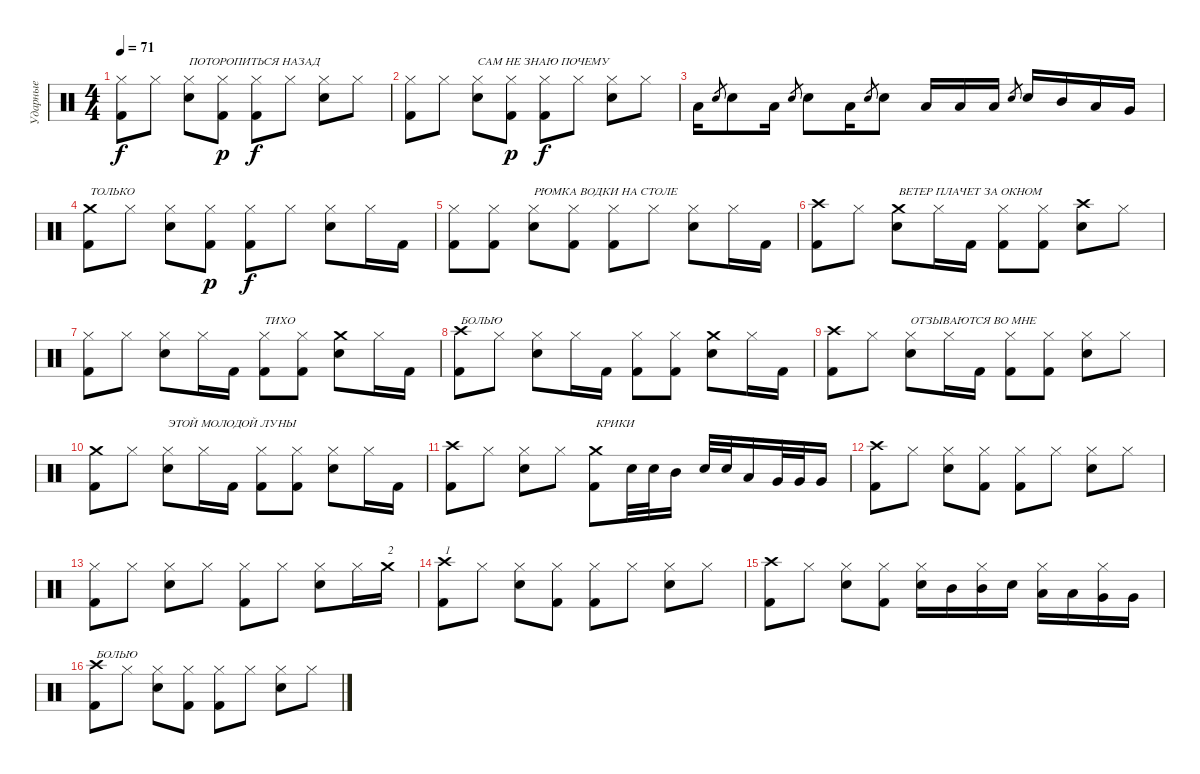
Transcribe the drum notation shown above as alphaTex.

\track ("Ударные" "Ударные") {instrument percussion}
\staff {score}
\articulation defaults
\ts (4 4)
\tempo 71
\clef neutral
\ks c
("Hi-Hat (closed)" "Kick (hit) 2").8{dy f} "Hi-Hat (closed)".8 ("Hi-Hat (closed)" "Snare (hit) 2").8{txt "ПОТОРОПИТЬСЯ НАЗАД"} ("Hi-Hat (closed)" "Kick (hit) 2").8{dy p} ("Hi-Hat (closed)" "Kick (hit) 2").8{dy f} "Hi-Hat (closed)".8 ("Hi-Hat (closed)" "Snare (hit) 2").8 "Hi-Hat (closed)".8 |
("Hi-Hat (closed)" "Kick (hit) 2").8 "Hi-Hat (closed)".8 ("Hi-Hat (closed)" "Snare (hit) 2").8{txt "САМ НЕ ЗНАЮ ПОЧЕМУ"} ("Hi-Hat (closed)" "Kick (hit) 2").8{dy p} ("Hi-Hat (closed)" "Kick (hit) 2").8{dy f} "Hi-Hat (closed)".8 ("Hi-Hat (closed)" "Snare (hit) 2").8 "Hi-Hat (closed)".8 |
"Low Tom (hit)".16 "Snare (hit) 2".8{gr} "Snare (hit) 2".8 "Low Tom (hit)".16 "Snare (hit) 2".8{gr} "Snare (hit) 2".8 "Low Tom (hit)".16 "Snare (hit) 2".8{gr} "Snare (hit) 2".8 "Low Tom (hit)".16 "Low Tom (hit)".16 "Low Tom (hit)".16 "Snare (hit) 2".8{gr} "Snare (hit) 2".16 "Mid Tom (hit)".16 "Low Tom (hit)".16 "Very Low Tom (hit)".16 |
("Crash medium (hit)" "Kick (hit) 2").8{txt "ТОЛЬКО"} "Hi-Hat (closed)".8 ("Hi-Hat (closed)" "Snare (hit) 2").8 ("Hi-Hat (closed)" "Kick (hit) 2").8{dy p} ("Hi-Hat (closed)" "Kick (hit) 2").8{dy f} "Hi-Hat (closed)".8 ("Hi-Hat (closed)" "Snare (hit) 2").8 "Hi-Hat (closed)".16 "Kick (hit) 2".16 |
("Hi-Hat (closed)" "Kick (hit) 2").8 ("Hi-Hat (closed)" "Kick (hit) 2").8 ("Hi-Hat (closed)" "Snare (hit) 2").8{txt "РЮМКА ВОДКИ НА СТОЛЕ"} ("Hi-Hat (closed)" "Kick (hit) 2").8 ("Hi-Hat (closed)" "Kick (hit) 2").8 "Hi-Hat (closed)".8 ("Hi-Hat (closed)" "Snare (hit) 2").8 "Hi-Hat (closed)".16 "Kick (hit) 2".16 |
("Crash high (hit)" "Kick (hit) 2").8 "Hi-Hat (closed)".8 ("Crash medium (hit)" "Snare (hit) 2").8{txt "ВЕТЕР ПЛАЧЕТ ЗА ОКНОМ"} "Hi-Hat (closed)".16 "Kick (hit) 2".16 ("Hi-Hat (closed)" "Kick (hit) 2").8 ("Hi-Hat (closed)" "Kick (hit) 2").8 ("Crash high (hit)" "Snare (hit) 2").8 "Hi-Hat (closed)".8 |
("Hi-Hat (closed)" "Kick (hit) 2").8 "Hi-Hat (closed)".8 ("Hi-Hat (closed)" "Snare (hit) 2").8 "Hi-Hat (closed)".16 "Kick (hit) 2".16 ("Hi-Hat (closed)" "Kick (hit) 2").8{txt "ТИХО"} ("Hi-Hat (closed)" "Kick (hit) 2").8 ("Crash medium (hit)" "Snare (hit) 2").8 "Hi-Hat (closed)".16 "Kick (hit) 2".16 |
("Crash high (hit)" "Kick (hit) 2").8{txt "БОЛЬЮ"} "Hi-Hat (closed)".8 ("Hi-Hat (closed)" "Snare (hit) 2").8 "Hi-Hat (closed)".16 "Kick (hit) 2".16 ("Hi-Hat (closed)" "Kick (hit) 2").8 ("Hi-Hat (closed)" "Kick (hit) 2").8 ("Crash medium (hit)" "Snare (hit) 2").8 "Hi-Hat (closed)".16 "Kick (hit) 2".16 |
("Crash high (hit)" "Kick (hit) 2").8 "Hi-Hat (closed)".8 ("Hi-Hat (closed)" "Snare (hit) 2").8{txt "ОТЗЫВАЮТСЯ ВО МНЕ"} "Hi-Hat (closed)".16 "Kick (hit) 2".16 ("Hi-Hat (closed)" "Kick (hit) 2").8 ("Hi-Hat (closed)" "Kick (hit) 2").8 ("Hi-Hat (closed)" "Snare (hit) 2").8 "Hi-Hat (closed)".8 |
("Crash medium (hit)" "Kick (hit) 2").8 "Hi-Hat (closed)".8 ("Hi-Hat (closed)" "Snare (hit) 2").8{txt "ЭТОЙ МОЛОДОЙ ЛУНЫ"} "Hi-Hat (closed)".16 "Kick (hit) 2".16 ("Hi-Hat (closed)" "Kick (hit) 2").8 ("Hi-Hat (closed)" "Kick (hit) 2").8 ("Hi-Hat (closed)" "Snare (hit) 2").8 "Hi-Hat (closed)".16 "Kick (hit) 2".16 |
("Crash high (hit)" "Kick (hit) 2").8 "Hi-Hat (closed)".8 ("Hi-Hat (closed)" "Snare (hit) 2").8 "Hi-Hat (closed)".8 ("Crash medium (hit)" "Kick (hit) 2").8{txt "КРИКИ"} "Snare (hit) 2".32 "Snare (hit) 2".32 "Mid Tom (hit)".16 "Snare (hit) 2".32 "Snare (hit) 2".32 "Low Tom (hit)".16 "Very Low Tom (hit)".32 "Very Low Tom (hit)".32 "Very Low Tom (hit)".16 |
("Crash high (hit)" "Kick (hit) 2").8 "Hi-Hat (closed)".8 ("Hi-Hat (closed)" "Snare (hit) 2").8 ("Hi-Hat (closed)" "Kick (hit) 2").8 ("Hi-Hat (closed)" "Kick (hit) 2").8 "Hi-Hat (closed)".8 ("Hi-Hat (closed)" "Snare (hit) 2").8 "Hi-Hat (closed)".8 |
("Hi-Hat (closed)" "Kick (hit) 2").8 "Hi-Hat (closed)".8 ("Hi-Hat (closed)" "Snare (hit) 2").8 "Hi-Hat (closed)".8 ("Hi-Hat (closed)" "Kick (hit) 2").8 "Hi-Hat (closed)".8 ("Hi-Hat (closed)" "Snare (hit) 2").8 "Hi-Hat (closed)".16 "Crash medium (hit)".16{txt "2"} |
("Crash high (hit)" "Kick (hit) 2").8{txt "1"} "Hi-Hat (closed)".8 ("Hi-Hat (closed)" "Snare (hit) 2").8 ("Hi-Hat (closed)" "Kick (hit) 2").8 ("Hi-Hat (closed)" "Kick (hit) 2").8 "Hi-Hat (closed)".8 ("Hi-Hat (closed)" "Snare (hit) 2").8 "Hi-Hat (closed)".8 |
("Crash high (hit)" "Kick (hit) 2").8 "Hi-Hat (closed)".8 ("Hi-Hat (closed)" "Snare (hit) 2").8 ("Hi-Hat (closed)" "Kick (hit) 2").8 ("Hi-Hat (closed)" "Snare (hit) 2").16 "Mid Tom (hit)".16 ("Hi-Hat (closed)" "Mid Tom (hit)").16 "Snare (hit) 2".16 ("Hi-Hat (closed)" "Low Tom (hit)").16 "Low Tom (hit)".16 ("Hi-Hat (closed)" "Very Low Tom (hit)").16 "Very Low Tom (hit)".16 |
("Crash high (hit)" "Kick (hit) 2").8{txt "БОЛЬЮ"} "Hi-Hat (closed)".8 ("Hi-Hat (closed)" "Snare (hit) 2").8 ("Hi-Hat (closed)" "Kick (hit) 2").8 ("Hi-Hat (closed)" "Kick (hit) 2").8 "Hi-Hat (closed)".8 ("Hi-Hat (closed)" "Snare (hit) 2").8 "Hi-Hat (closed)".8
